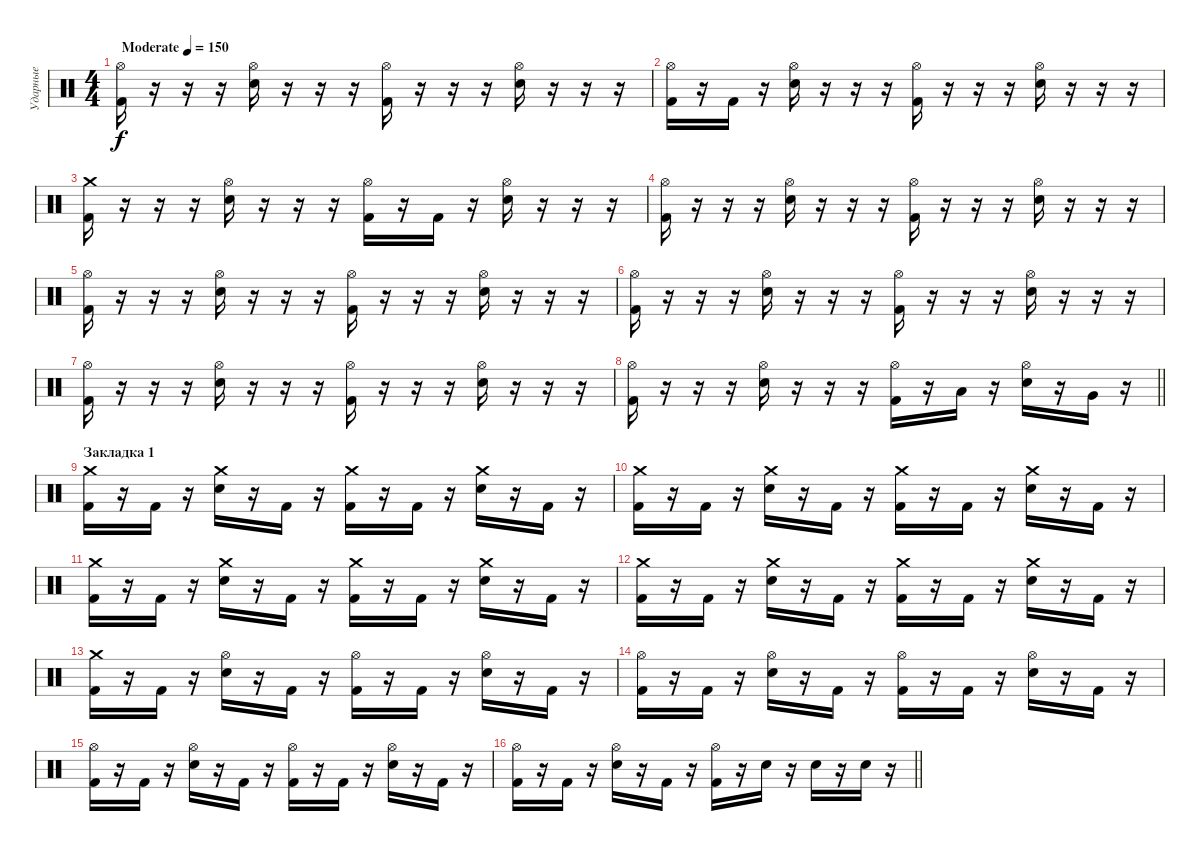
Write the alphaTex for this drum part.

\track ("Ударные" "Ударные") {instrument percussion}
\staff {score}
\articulation defaults
\ts (4 4)
\tempo (150 "Moderate")
\clef neutral
\ks c
("Hi-Hat (open)" "Kick (hit) 2").16{dy f} r.16 r.16 r.16 ("Hi-Hat (open)" "Electric Snare (hit)").16 r.16 r.16 r.16 ("Hi-Hat (open)" "Kick (hit) 2").16 r.16 r.16 r.16 ("Hi-Hat (open)" "Electric Snare (hit)").16 r.16 r.16 r.16 |
("Hi-Hat (open)" "Kick (hit) 2").16 r.16 "Kick (hit) 2".16 r.16 ("Hi-Hat (open)" "Electric Snare (hit)").16 r.16 r.16 r.16 ("Hi-Hat (open)" "Kick (hit) 2").16 r.16 r.16 r.16 ("Hi-Hat (open)" "Electric Snare (hit)").16 r.16 r.16 r.16 |
("Crash medium (hit)" "Kick (hit) 2").16 r.16 r.16 r.16 ("Hi-Hat (open)" "Electric Snare (hit)").16 r.16 r.16 r.16 ("Hi-Hat (open)" "Kick (hit) 2").16 r.16 "Kick (hit) 2".16 r.16 ("Hi-Hat (open)" "Electric Snare (hit)").16 r.16 r.16 r.16 |
("Hi-Hat (open)" "Kick (hit) 2").16 r.16 r.16 r.16 ("Hi-Hat (open)" "Electric Snare (hit)").16 r.16 r.16 r.16 ("Hi-Hat (open)" "Kick (hit) 2").16 r.16 r.16 r.16 ("Hi-Hat (open)" "Electric Snare (hit)").16 r.16 r.16 r.16 |
("Hi-Hat (open)" "Kick (hit) 2").16 r.16 r.16 r.16 ("Hi-Hat (open)" "Electric Snare (hit)").16 r.16 r.16 r.16 ("Hi-Hat (open)" "Kick (hit) 2").16 r.16 r.16 r.16 ("Hi-Hat (open)" "Electric Snare (hit)").16 r.16 r.16 r.16 |
("Hi-Hat (open)" "Kick (hit) 2").16 r.16 r.16 r.16 ("Hi-Hat (open)" "Electric Snare (hit)").16 r.16 r.16 r.16 ("Hi-Hat (open)" "Kick (hit) 2").16 r.16 r.16 r.16 ("Hi-Hat (open)" "Electric Snare (hit)").16 r.16 r.16 r.16 |
("Hi-Hat (open)" "Kick (hit) 2").16 r.16 r.16 r.16 ("Hi-Hat (open)" "Electric Snare (hit)").16 r.16 r.16 r.16 ("Hi-Hat (open)" "Kick (hit) 2").16 r.16 r.16 r.16 ("Hi-Hat (open)" "Electric Snare (hit)").16 r.16 r.16 r.16 |
\barLineRight lightlight
("Hi-Hat (open)" "Kick (hit) 2").16 r.16 r.16 r.16 ("Hi-Hat (open)" "Electric Snare (hit)").16 r.16 r.16 r.16 ("Hi-Hat (open)" "Kick (hit) 2").16 r.16 "Low Tom (hit)".16 r.16 ("Hi-Hat (open)" "Electric Snare (hit)").16 r.16 "Very Low Tom (hit)".16 r.16 |
\section ("" "Закладка 1")
("Crash medium (hit)" "Kick (hit) 2").16 r.16 "Kick (hit) 2".16 r.16 ("Crash medium (hit)" "Electric Snare (hit)").16 r.16 "Kick (hit) 2".16 r.16 ("Crash medium (hit)" "Kick (hit) 2").16 r.16 "Kick (hit) 2".16 r.16 ("Crash medium (hit)" "Electric Snare (hit)").16 r.16 "Kick (hit) 2".16 r.16 |
("Crash medium (hit)" "Kick (hit) 2").16 r.16 "Kick (hit) 2".16 r.16 ("Crash medium (hit)" "Electric Snare (hit)").16 r.16 "Kick (hit) 2".16 r.16 ("Crash medium (hit)" "Kick (hit) 2").16 r.16 "Kick (hit) 2".16 r.16 ("Crash medium (hit)" "Electric Snare (hit)").16 r.16 "Kick (hit) 2".16 r.16 |
("Crash medium (hit)" "Kick (hit) 2").16 r.16 "Kick (hit) 2".16 r.16 ("Crash medium (hit)" "Electric Snare (hit)").16 r.16 "Kick (hit) 2".16 r.16 ("Crash medium (hit)" "Kick (hit) 2").16 r.16 "Kick (hit) 2".16 r.16 ("Crash medium (hit)" "Electric Snare (hit)").16 r.16 "Kick (hit) 2".16 r.16 |
("Crash medium (hit)" "Kick (hit) 2").16 r.16 "Kick (hit) 2".16 r.16 ("Crash medium (hit)" "Electric Snare (hit)").16 r.16 "Kick (hit) 2".16 r.16 ("Crash medium (hit)" "Kick (hit) 2").16 r.16 "Kick (hit) 2".16 r.16 ("Crash medium (hit)" "Electric Snare (hit)").16 r.16 "Kick (hit) 2".16 r.16 |
("Crash medium (hit)" "Kick (hit) 2").16 r.16 "Kick (hit) 2".16 r.16 ("Hi-Hat (open)" "Electric Snare (hit)").16 r.16 "Kick (hit) 2".16 r.16 ("Hi-Hat (open)" "Kick (hit) 2").16 r.16 "Kick (hit) 2".16 r.16 ("Hi-Hat (open)" "Electric Snare (hit)").16 r.16 "Kick (hit) 2".16 r.16 |
("Hi-Hat (open)" "Kick (hit) 2").16 r.16 "Kick (hit) 2".16 r.16 ("Hi-Hat (open)" "Electric Snare (hit)").16 r.16 "Kick (hit) 2".16 r.16 ("Hi-Hat (open)" "Kick (hit) 2").16 r.16 "Kick (hit) 2".16 r.16 ("Hi-Hat (open)" "Electric Snare (hit)").16 r.16 "Kick (hit) 2".16 r.16 |
("Hi-Hat (open)" "Kick (hit) 2").16 r.16 "Kick (hit) 2".16 r.16 ("Hi-Hat (open)" "Electric Snare (hit)").16 r.16 "Kick (hit) 2".16 r.16 ("Hi-Hat (open)" "Kick (hit) 2").16 r.16 "Kick (hit) 2".16 r.16 ("Hi-Hat (open)" "Electric Snare (hit)").16 r.16 "Kick (hit) 2".16 r.16 |
\barLineRight lightlight
("Hi-Hat (open)" "Kick (hit) 2").16 r.16 "Kick (hit) 2".16 r.16 ("Hi-Hat (open)" "Electric Snare (hit)").16 r.16 "Kick (hit) 2".16 r.16 ("Hi-Hat (open)" "Kick (hit) 2").16 r.16 "Electric Snare (hit)".16 r.16 "Electric Snare (hit)".16 r.16 "Electric Snare (hit)".16 r.16
